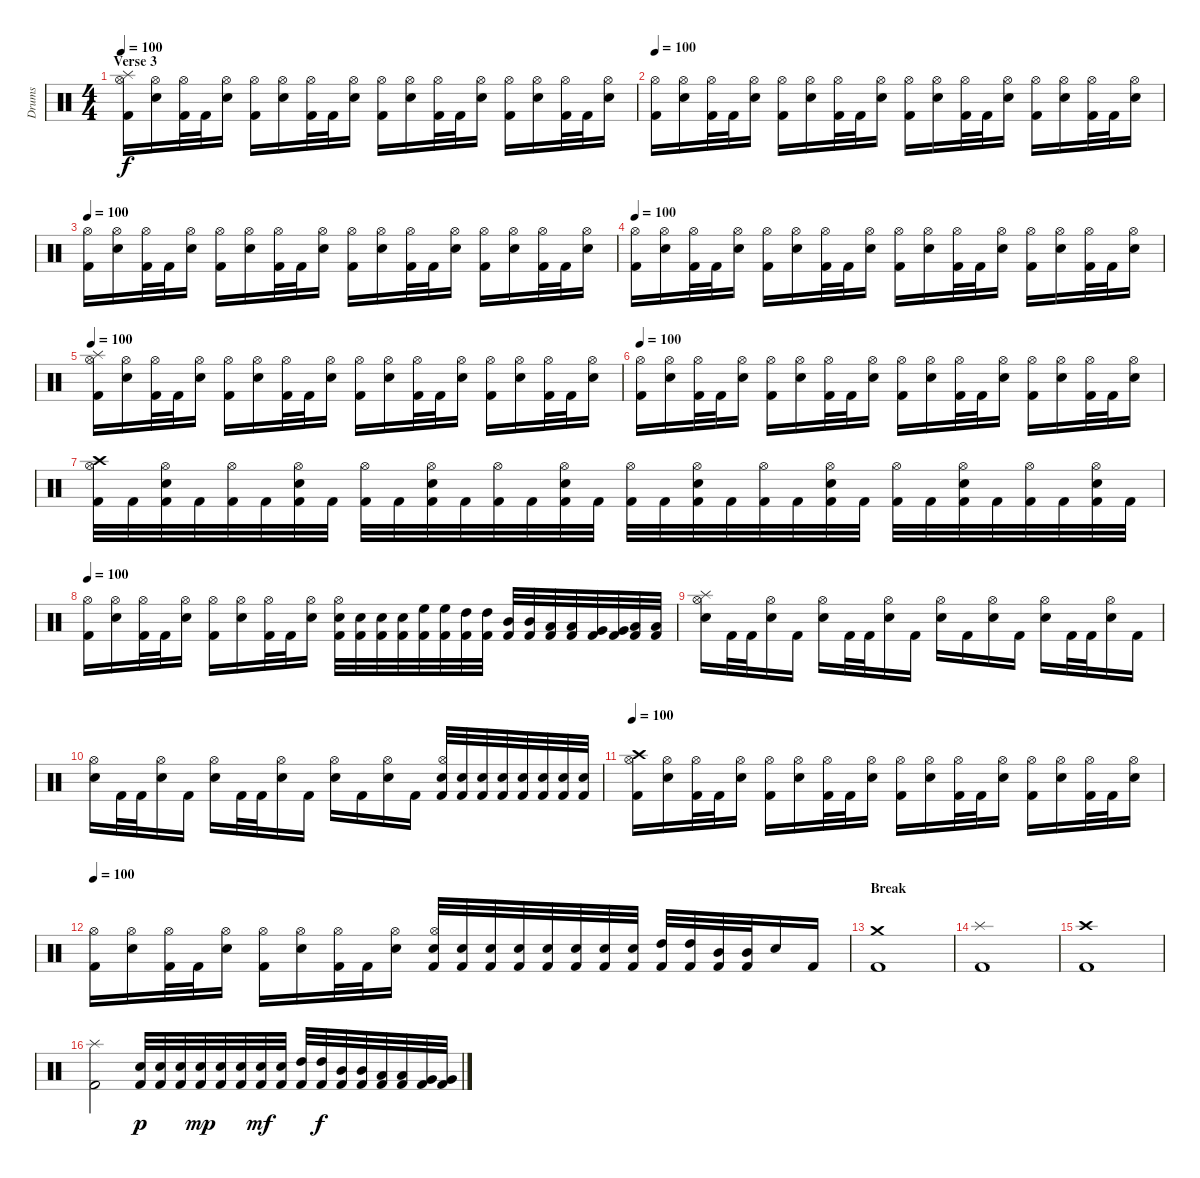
\track ("Drums" "Drums") {instrument percussion}
\staff {score}
\articulation defaults
\ts (4 4)
\section ("" "Verse 3")
\tempo 100
\clef neutral
\ks c
("Kick (hit) 2" "Hi-Hat (open)" "Splash (hit)").16{dy f} ("Snare (hit) 2" "Hi-Hat (open)").16 ("Kick (hit) 2" "Hi-Hat (open)").32 "Kick (hit) 2".32 ("Snare (hit) 2" "Hi-Hat (open)").16 ("Kick (hit) 2" "Hi-Hat (open)").16 ("Snare (hit) 2" "Hi-Hat (open)").16 ("Kick (hit) 2" "Hi-Hat (open)").32 "Kick (hit) 2".32 ("Snare (hit) 2" "Hi-Hat (open)").16 ("Kick (hit) 2" "Hi-Hat (open)").16 ("Snare (hit) 2" "Hi-Hat (open)").16 ("Kick (hit) 2" "Hi-Hat (open)").32 "Kick (hit) 2".32 ("Snare (hit) 2" "Hi-Hat (open)").16 ("Kick (hit) 2" "Hi-Hat (open)").16 ("Snare (hit) 2" "Hi-Hat (open)").16 ("Kick (hit) 2" "Hi-Hat (open)").32 "Kick (hit) 2".32 ("Snare (hit) 2" "Hi-Hat (open)").16 |
\tempo 100
("Kick (hit) 2" "Hi-Hat (open)").16 ("Snare (hit) 2" "Hi-Hat (open)").16 ("Kick (hit) 2" "Hi-Hat (open)").32 "Kick (hit) 2".32 ("Snare (hit) 2" "Hi-Hat (open)").16 ("Kick (hit) 2" "Hi-Hat (open)").16 ("Snare (hit) 2" "Hi-Hat (open)").16 ("Kick (hit) 2" "Hi-Hat (open)").32 "Kick (hit) 2".32 ("Snare (hit) 2" "Hi-Hat (open)").16 ("Kick (hit) 2" "Hi-Hat (open)").16 ("Snare (hit) 2" "Hi-Hat (open)").16 ("Kick (hit) 2" "Hi-Hat (open)").32 "Kick (hit) 2".32 ("Snare (hit) 2" "Hi-Hat (open)").16 ("Kick (hit) 2" "Hi-Hat (open)").16 ("Snare (hit) 2" "Hi-Hat (open)").16 ("Kick (hit) 2" "Hi-Hat (open)").32 "Kick (hit) 2".32 ("Snare (hit) 2" "Hi-Hat (open)").16 |
\tempo 100
("Kick (hit) 2" "Hi-Hat (open)").16 ("Snare (hit) 2" "Hi-Hat (open)").16 ("Kick (hit) 2" "Hi-Hat (open)").32 "Kick (hit) 2".32 ("Snare (hit) 2" "Hi-Hat (open)").16 ("Kick (hit) 2" "Hi-Hat (open)").16 ("Snare (hit) 2" "Hi-Hat (open)").16 ("Kick (hit) 2" "Hi-Hat (open)").32 "Kick (hit) 2".32 ("Snare (hit) 2" "Hi-Hat (open)").16 ("Kick (hit) 2" "Hi-Hat (open)").16 ("Snare (hit) 2" "Hi-Hat (open)").16 ("Kick (hit) 2" "Hi-Hat (open)").32 "Kick (hit) 2".32 ("Snare (hit) 2" "Hi-Hat (open)").16 ("Kick (hit) 2" "Hi-Hat (open)").16 ("Snare (hit) 2" "Hi-Hat (open)").16 ("Kick (hit) 2" "Hi-Hat (open)").32 "Kick (hit) 2".32 ("Snare (hit) 2" "Hi-Hat (open)").16 |
\tempo 100
("Kick (hit) 2" "Hi-Hat (open)").16 ("Snare (hit) 2" "Hi-Hat (open)").16 ("Kick (hit) 2" "Hi-Hat (open)").32 "Kick (hit) 2".32 ("Snare (hit) 2" "Hi-Hat (open)").16 ("Kick (hit) 2" "Hi-Hat (open)").16 ("Snare (hit) 2" "Hi-Hat (open)").16 ("Kick (hit) 2" "Hi-Hat (open)").32 "Kick (hit) 2".32 ("Snare (hit) 2" "Hi-Hat (open)").16 ("Kick (hit) 2" "Hi-Hat (open)").16 ("Snare (hit) 2" "Hi-Hat (open)").16 ("Kick (hit) 2" "Hi-Hat (open)").32 "Kick (hit) 2".32 ("Snare (hit) 2" "Hi-Hat (open)").16 ("Kick (hit) 2" "Hi-Hat (open)").16 ("Snare (hit) 2" "Hi-Hat (open)").16 ("Kick (hit) 2" "Hi-Hat (open)").32 "Kick (hit) 2".32 ("Snare (hit) 2" "Hi-Hat (open)").16 |
\tempo 100
("Kick (hit) 2" "Hi-Hat (open)" "Splash (hit)").16 ("Snare (hit) 2" "Hi-Hat (open)").16 ("Kick (hit) 2" "Hi-Hat (open)").32 "Kick (hit) 2".32 ("Snare (hit) 2" "Hi-Hat (open)").16 ("Kick (hit) 2" "Hi-Hat (open)").16 ("Snare (hit) 2" "Hi-Hat (open)").16 ("Kick (hit) 2" "Hi-Hat (open)").32 "Kick (hit) 2".32 ("Snare (hit) 2" "Hi-Hat (open)").16 ("Kick (hit) 2" "Hi-Hat (open)").16 ("Snare (hit) 2" "Hi-Hat (open)").16 ("Kick (hit) 2" "Hi-Hat (open)").32 "Kick (hit) 2".32 ("Snare (hit) 2" "Hi-Hat (open)").16 ("Kick (hit) 2" "Hi-Hat (open)").16 ("Snare (hit) 2" "Hi-Hat (open)").16 ("Kick (hit) 2" "Hi-Hat (open)").32 "Kick (hit) 2".32 ("Snare (hit) 2" "Hi-Hat (open)").16 |
\tempo 100
("Kick (hit) 2" "Hi-Hat (open)").16 ("Snare (hit) 2" "Hi-Hat (open)").16 ("Kick (hit) 2" "Hi-Hat (open)").32 "Kick (hit) 2".32 ("Snare (hit) 2" "Hi-Hat (open)").16 ("Kick (hit) 2" "Hi-Hat (open)").16 ("Snare (hit) 2" "Hi-Hat (open)").16 ("Kick (hit) 2" "Hi-Hat (open)").32 "Kick (hit) 2".32 ("Snare (hit) 2" "Hi-Hat (open)").16 ("Kick (hit) 2" "Hi-Hat (open)").16 ("Snare (hit) 2" "Hi-Hat (open)").16 ("Kick (hit) 2" "Hi-Hat (open)").32 "Kick (hit) 2".32 ("Snare (hit) 2" "Hi-Hat (open)").16 ("Kick (hit) 2" "Hi-Hat (open)").16 ("Snare (hit) 2" "Hi-Hat (open)").16 ("Kick (hit) 2" "Hi-Hat (open)").32 "Kick (hit) 2".32 ("Snare (hit) 2" "Hi-Hat (open)").16 |
("Kick (hit) 2" "Hi-Hat (open)" "Crash high (hit)").32 "Kick (hit) 2".32 ("Kick (hit) 2" "Snare (hit) 2" "Hi-Hat (open)").32 "Kick (hit) 2".32 ("Kick (hit) 2" "Hi-Hat (open)").32 "Kick (hit) 2".32 ("Kick (hit) 2" "Snare (hit) 2" "Hi-Hat (open)").32 "Kick (hit) 2".32 ("Kick (hit) 2" "Hi-Hat (open)").32 "Kick (hit) 2".32 ("Kick (hit) 2" "Snare (hit) 2" "Hi-Hat (open)").32 "Kick (hit) 2".32 ("Kick (hit) 2" "Hi-Hat (open)").32 "Kick (hit) 2".32 ("Kick (hit) 2" "Snare (hit) 2" "Hi-Hat (open)").32 "Kick (hit) 2".32 ("Kick (hit) 2" "Hi-Hat (open)").32 "Kick (hit) 2".32 ("Kick (hit) 2" "Snare (hit) 2" "Hi-Hat (open)").32 "Kick (hit) 2".32 ("Kick (hit) 2" "Hi-Hat (open)").32 "Kick (hit) 2".32 ("Kick (hit) 2" "Snare (hit) 2" "Hi-Hat (open)").32 "Kick (hit) 2".32 ("Kick (hit) 2" "Hi-Hat (open)").32 "Kick (hit) 2".32 ("Kick (hit) 2" "Snare (hit) 2" "Hi-Hat (open)").32 "Kick (hit) 2".32 ("Kick (hit) 2" "Hi-Hat (open)").32 "Kick (hit) 2".32 ("Kick (hit) 2" "Snare (hit) 2" "Hi-Hat (open)").32 "Kick (hit) 2".32 |
\tempo 100
("Kick (hit) 2" "Hi-Hat (open)").16 ("Snare (hit) 2" "Hi-Hat (open)").16 ("Kick (hit) 2" "Hi-Hat (open)").32 "Kick (hit) 2".32 ("Snare (hit) 2" "Hi-Hat (open)").16 ("Kick (hit) 2" "Hi-Hat (open)").16 ("Snare (hit) 2" "Hi-Hat (open)").16 ("Kick (hit) 2" "Hi-Hat (open)").32 "Kick (hit) 2".32 ("Snare (hit) 2" "Hi-Hat (open)").16 ("Kick (hit) 2" "Snare (hit) 2" "Hi-Hat (open)").32 ("Kick (hit) 2" "Snare (hit) 2").32 ("Kick (hit) 2" "Snare (hit) 2").32 ("Kick (hit) 2" "Snare (hit) 2").32 ("Kick (hit) 2" "High Floor Tom (hit)").32 ("Kick (hit) 2" "High Floor Tom (hit)").32 ("Kick (hit) 2" "High Tom (hit)").32 ("Kick (hit) 2" "High Tom (hit)").32 ("Kick (hit) 2" "Mid Tom (hit)").32 ("Kick (hit) 2" "Mid Tom (hit)").32 ("Kick (hit) 2" "Low Tom (hit)").32 ("Kick (hit) 2" "Low Tom (hit)").32 ("Kick (hit) 2" "Very Low Tom (hit)").32 ("Kick (hit) 2" "Very Low Tom (hit)").32 ("Kick (hit) 2" "Low Floor Tom (hit)").32 ("Kick (hit) 2" "Low Floor Tom (hit)").32 |
\section ("" "")
("Snare (hit) 2" "Hi-Hat (open)" "Splash (hit)").16 "Kick (hit) 2".32 "Kick (hit) 2".32 ("Snare (hit) 2" "Hi-Hat (open)").16 "Kick (hit) 2".16 ("Snare (hit) 2" "Hi-Hat (open)").16 "Kick (hit) 2".32 "Kick (hit) 2".32 ("Snare (hit) 2" "Hi-Hat (open)").16 "Kick (hit) 2".16 ("Snare (hit) 2" "Hi-Hat (open)").16 "Kick (hit) 2".16 ("Snare (hit) 2" "Hi-Hat (open)").16 "Kick (hit) 2".16 ("Snare (hit) 2" "Hi-Hat (open)").16 "Kick (hit) 2".32 "Kick (hit) 2".32 ("Snare (hit) 2" "Hi-Hat (open)").16 "Kick (hit) 2".16 |
("Snare (hit) 2" "Hi-Hat (open)").16 "Kick (hit) 2".32 "Kick (hit) 2".32 ("Snare (hit) 2" "Hi-Hat (open)").16 "Kick (hit) 2".16 ("Snare (hit) 2" "Hi-Hat (open)").16 "Kick (hit) 2".32 "Kick (hit) 2".32 ("Snare (hit) 2" "Hi-Hat (open)").16 "Kick (hit) 2".16 ("Snare (hit) 2" "Hi-Hat (open)").16 "Kick (hit) 2".16 ("Snare (hit) 2" "Hi-Hat (open)").16 "Kick (hit) 2".16 ("Kick (hit) 2" "Snare (hit) 2" "Hi-Hat (open)").32 ("Kick (hit) 2" "Snare (hit) 2").32 ("Kick (hit) 2" "Snare (hit) 2").32 ("Kick (hit) 2" "Snare (hit) 2").32 ("Kick (hit) 2" "Snare (hit) 2").32 ("Kick (hit) 2" "Snare (hit) 2").32 ("Kick (hit) 2" "Snare (hit) 2").32 ("Kick (hit) 2" "Snare (hit) 2").32 |
\tempo 100
("Kick (hit) 2" "Hi-Hat (open)" "Crash high (hit)").16 ("Snare (hit) 2" "Hi-Hat (open)").16 ("Kick (hit) 2" "Hi-Hat (open)").32 "Kick (hit) 2".32 ("Snare (hit) 2" "Hi-Hat (open)").16 ("Kick (hit) 2" "Hi-Hat (open)").16 ("Snare (hit) 2" "Hi-Hat (open)").16 ("Kick (hit) 2" "Hi-Hat (open)").32 "Kick (hit) 2".32 ("Snare (hit) 2" "Hi-Hat (open)").16 ("Kick (hit) 2" "Hi-Hat (open)").16 ("Snare (hit) 2" "Hi-Hat (open)").16 ("Kick (hit) 2" "Hi-Hat (open)").32 "Kick (hit) 2".32 ("Snare (hit) 2" "Hi-Hat (open)").16 ("Kick (hit) 2" "Hi-Hat (open)").16 ("Snare (hit) 2" "Hi-Hat (open)").16 ("Kick (hit) 2" "Hi-Hat (open)").32 "Kick (hit) 2".32 ("Snare (hit) 2" "Hi-Hat (open)").16 |
\tempo 100
("Kick (hit) 2" "Hi-Hat (open)").16 ("Snare (hit) 2" "Hi-Hat (open)").16 ("Kick (hit) 2" "Hi-Hat (open)").32 "Kick (hit) 2".32 ("Snare (hit) 2" "Hi-Hat (open)").16 ("Kick (hit) 2" "Hi-Hat (open)").16 ("Snare (hit) 2" "Hi-Hat (open)").16 ("Kick (hit) 2" "Hi-Hat (open)").32 "Kick (hit) 2".32 ("Snare (hit) 2" "Hi-Hat (open)").16 ("Kick (hit) 2" "Snare (hit) 2" "Hi-Hat (open)").32 ("Kick (hit) 2" "Snare (hit) 2").32 ("Kick (hit) 2" "Snare (hit) 2").32 ("Kick (hit) 2" "Snare (hit) 2").32 ("Kick (hit) 2" "Snare (hit) 2").32 ("Kick (hit) 2" "Snare (hit) 2").32 ("Kick (hit) 2" "Snare (hit) 2").32 ("Kick (hit) 2" "Snare (hit) 2").32 ("Kick (hit) 2" "High Tom (hit)").32 ("Kick (hit) 2" "High Tom (hit)").32 ("Kick (hit) 2" "Mid Tom (hit)").32 ("Kick (hit) 2" "Mid Tom (hit)").32 "Snare (hit) 2".16 "Kick (hit) 2".16 |
\section ("" "Break")
("Kick (hit) 2" "Crash medium (hit)").1 |
("Kick (hit) 2" "Splash (hit)").1 |
("Kick (hit) 2" "Crash high (hit)").1 |
("Kick (hit) 2" "Splash (hit)").2 ("Kick (hit) 2" "Snare (hit) 2").32{dy p} ("Kick (hit) 2" "Snare (hit) 2").32 ("Kick (hit) 2" "Snare (hit) 2").32 ("Kick (hit) 2" "Snare (hit) 2").32{dy mp} ("Kick (hit) 2" "Snare (hit) 2").32 ("Kick (hit) 2" "Snare (hit) 2").32 ("Kick (hit) 2" "Snare (hit) 2").32{dy mf} ("Kick (hit) 2" "Snare (hit) 2").32 ("Kick (hit) 2" "High Tom (hit)").32 ("Kick (hit) 2" "High Tom (hit)").32{dy f} ("Kick (hit) 2" "Mid Tom (hit)").32 ("Kick (hit) 2" "Mid Tom (hit)").32 ("Kick (hit) 2" "Low Tom (hit)").32 ("Kick (hit) 2" "Low Tom (hit)").32 ("Kick (hit) 2" "Very Low Tom (hit)").32 ("Kick (hit) 2" "Very Low Tom (hit)").32
